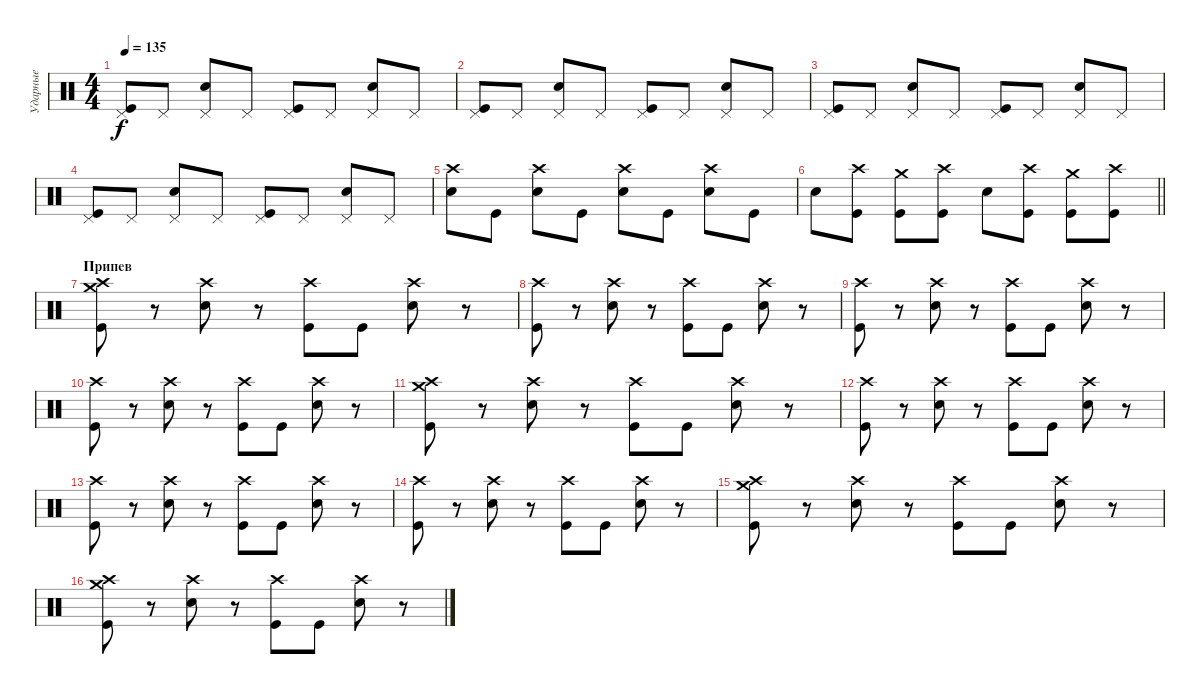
\track ("Ударные" "Ударные") {instrument percussion bank 9}
\staff {score}
\articulation defaults
\ts (4 4)
\tempo 135
\clef neutral
\ks c
("Pedal Hi-Hat (hit)" "Kick (hit)").8{dy f} "Pedal Hi-Hat (hit)".8 ("Pedal Hi-Hat (hit)" "Electric Snare (hit)").8 "Pedal Hi-Hat (hit)".8 ("Pedal Hi-Hat (hit)" "Kick (hit)").8 "Pedal Hi-Hat (hit)".8 ("Pedal Hi-Hat (hit)" "Electric Snare (hit)").8 "Pedal Hi-Hat (hit)".8 |
("Pedal Hi-Hat (hit)" "Kick (hit)").8 "Pedal Hi-Hat (hit)".8 ("Pedal Hi-Hat (hit)" "Electric Snare (hit)").8 "Pedal Hi-Hat (hit)".8 ("Pedal Hi-Hat (hit)" "Kick (hit)").8 "Pedal Hi-Hat (hit)".8 ("Pedal Hi-Hat (hit)" "Electric Snare (hit)").8 "Pedal Hi-Hat (hit)".8 |
("Pedal Hi-Hat (hit)" "Kick (hit)").8 "Pedal Hi-Hat (hit)".8 ("Pedal Hi-Hat (hit)" "Electric Snare (hit)").8 "Pedal Hi-Hat (hit)".8 ("Pedal Hi-Hat (hit)" "Kick (hit)").8 "Pedal Hi-Hat (hit)".8 ("Pedal Hi-Hat (hit)" "Electric Snare (hit)").8 "Pedal Hi-Hat (hit)".8 |
("Pedal Hi-Hat (hit)" "Kick (hit)").8 "Pedal Hi-Hat (hit)".8 ("Pedal Hi-Hat (hit)" "Electric Snare (hit)").8 "Pedal Hi-Hat (hit)".8 ("Pedal Hi-Hat (hit)" "Kick (hit)").8 "Pedal Hi-Hat (hit)".8 ("Pedal Hi-Hat (hit)" "Electric Snare (hit)").8 "Pedal Hi-Hat (hit)".8 |
("Crash high (hit)" "Electric Snare (hit)").8 "Kick (hit)".8 ("Crash high (hit)" "Electric Snare (hit)").8 "Kick (hit)".8 ("Crash high (hit)" "Electric Snare (hit)").8 "Kick (hit)".8 ("Crash high (hit)" "Electric Snare (hit)").8 "Kick (hit)".8 |
\barLineRight lightlight "Electric Snare (hit)".8
("Kick (hit)" "Crash high (hit)").8 ("Kick (hit)" "Crash medium (hit)").8 ("Kick (hit)" "Crash high (hit)").8 "Electric Snare (hit)".8 ("Kick (hit)" "Crash high (hit)").8 ("Kick (hit)" "Crash medium (hit)").8 ("Kick (hit)" "Crash high (hit)").8 |
\section ("" "Припев")
("Crash high (hit)" "Kick (hit)" "Crash medium (hit)").8 r.8 ("Crash high (hit)" "Electric Snare (hit)").8 r.8 ("Crash high (hit)" "Kick (hit)").8 "Kick (hit)".8 ("Crash high (hit)" "Electric Snare (hit)").8 r.8 |
("Crash high (hit)" "Kick (hit)").8 r.8 ("Crash high (hit)" "Electric Snare (hit)").8 r.8 ("Crash high (hit)" "Kick (hit)").8 "Kick (hit)".8 ("Crash high (hit)" "Electric Snare (hit)").8 r.8 |
("Crash high (hit)" "Kick (hit)").8 r.8 ("Crash high (hit)" "Electric Snare (hit)").8 r.8 ("Crash high (hit)" "Kick (hit)").8 "Kick (hit)".8 ("Crash high (hit)" "Electric Snare (hit)").8 r.8 |
("Crash high (hit)" "Kick (hit)").8 r.8 ("Crash high (hit)" "Electric Snare (hit)").8 r.8 ("Crash high (hit)" "Kick (hit)").8 "Kick (hit)".8 ("Crash high (hit)" "Electric Snare (hit)").8 r.8 |
("Crash high (hit)" "Kick (hit)" "Crash medium (hit)").8 r.8 ("Crash high (hit)" "Electric Snare (hit)").8 r.8 ("Crash high (hit)" "Kick (hit)").8 "Kick (hit)".8 ("Crash high (hit)" "Electric Snare (hit)").8 r.8 |
("Crash high (hit)" "Kick (hit)").8 r.8 ("Crash high (hit)" "Electric Snare (hit)").8 r.8 ("Crash high (hit)" "Kick (hit)").8 "Kick (hit)".8 ("Crash high (hit)" "Electric Snare (hit)").8 r.8 |
("Crash high (hit)" "Kick (hit)").8 r.8 ("Crash high (hit)" "Electric Snare (hit)").8 r.8 ("Crash high (hit)" "Kick (hit)").8 "Kick (hit)".8 ("Crash high (hit)" "Electric Snare (hit)").8 r.8 |
("Crash high (hit)" "Kick (hit)").8 r.8 ("Crash high (hit)" "Electric Snare (hit)").8 r.8 ("Crash high (hit)" "Kick (hit)").8 "Kick (hit)".8 ("Crash high (hit)" "Electric Snare (hit)").8 r.8 |
("Crash high (hit)" "Kick (hit)" "Crash medium (hit)").8 r.8 ("Crash high (hit)" "Electric Snare (hit)").8 r.8 ("Crash high (hit)" "Kick (hit)").8 "Kick (hit)".8 ("Crash high (hit)" "Electric Snare (hit)").8 r.8 |
("Crash high (hit)" "Kick (hit)" "Crash medium (hit)").8 r.8 ("Crash high (hit)" "Electric Snare (hit)").8 r.8 ("Crash high (hit)" "Kick (hit)").8 "Kick (hit)".8 ("Crash high (hit)" "Electric Snare (hit)").8 r.8
